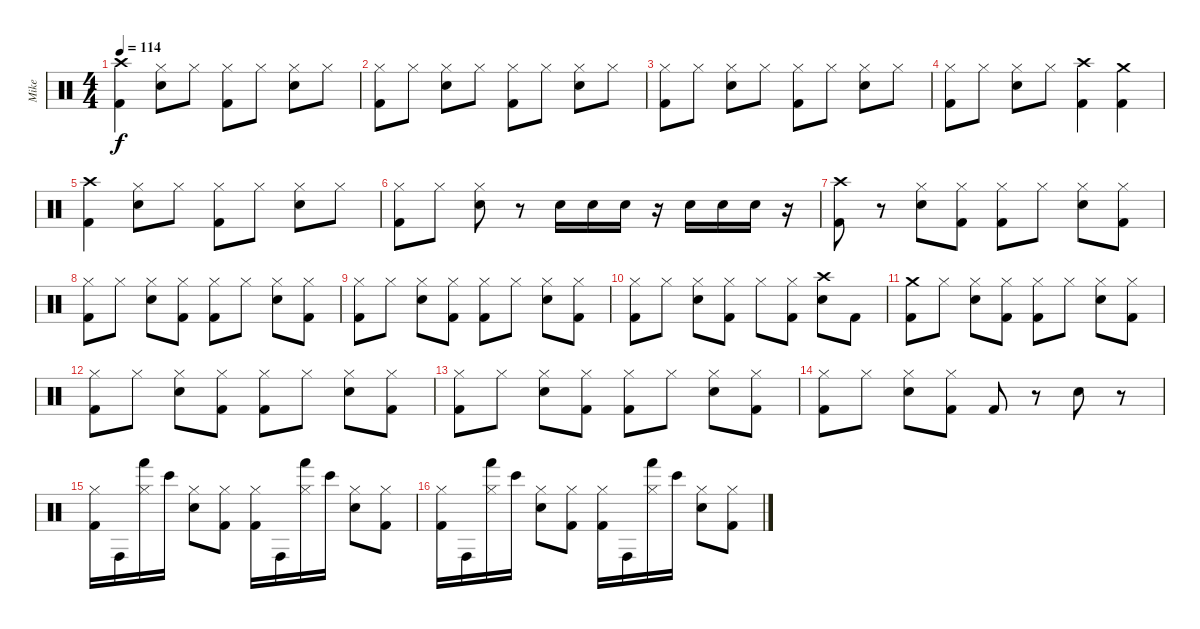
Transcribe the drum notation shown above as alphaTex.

\track ("Mike" "Mike") {instrument percussion}
\staff {score}
\articulation defaults
\ts (4 4)
\tempo 114
\clef neutral
\ks c
("Crash high (hit)" "Kick (hit) 2").4{dy f} ("Hi-Hat (closed)" "Electric Snare (hit)").8 "Hi-Hat (closed)".8 ("Hi-Hat (closed)" "Kick (hit) 2").8 "Hi-Hat (closed)".8 ("Hi-Hat (closed)" "Electric Snare (hit)").8 "Hi-Hat (closed)".8 |
("Hi-Hat (closed)" "Kick (hit) 2").8 "Hi-Hat (closed)".8 ("Hi-Hat (closed)" "Electric Snare (hit)").8 "Hi-Hat (closed)".8 ("Hi-Hat (closed)" "Kick (hit) 2").8 "Hi-Hat (closed)".8 ("Hi-Hat (closed)" "Electric Snare (hit)").8 "Hi-Hat (closed)".8 |
("Hi-Hat (closed)" "Kick (hit) 2").8 "Hi-Hat (closed)".8 ("Hi-Hat (closed)" "Electric Snare (hit)").8 "Hi-Hat (closed)".8 ("Hi-Hat (closed)" "Kick (hit) 2").8 "Hi-Hat (closed)".8 ("Hi-Hat (closed)" "Electric Snare (hit)").8 "Hi-Hat (closed)".8 |
("Hi-Hat (closed)" "Kick (hit) 2").8 "Hi-Hat (closed)".8 ("Hi-Hat (closed)" "Electric Snare (hit)").8 "Hi-Hat (closed)".8 ("Crash high (hit)" "Kick (hit) 2").4 ("Crash medium (hit)" "Kick (hit) 2").4 |
("Crash high (hit)" "Kick (hit) 2").4 ("Hi-Hat (closed)" "Electric Snare (hit)").8 "Hi-Hat (closed)".8 ("Hi-Hat (closed)" "Kick (hit) 2").8 "Hi-Hat (closed)".8 ("Hi-Hat (closed)" "Electric Snare (hit)").8 "Hi-Hat (closed)".8 |
("Hi-Hat (closed)" "Kick (hit) 2").8 "Hi-Hat (closed)".8 ("Hi-Hat (closed)" "Electric Snare (hit)").8 r.8 "Electric Snare (hit)".16 "Electric Snare (hit)".16 "Electric Snare (hit)".16 r.16 "Electric Snare (hit)".16 "Electric Snare (hit)".16 "Electric Snare (hit)".16 r.16 |
("Crash high (hit)" "Kick (hit) 2").8 r.8 ("Hi-Hat (closed)" "Electric Snare (hit)").8 ("Hi-Hat (closed)" "Kick (hit) 2").8 ("Hi-Hat (closed)" "Kick (hit) 2").8 "Hi-Hat (closed)".8 ("Hi-Hat (closed)" "Electric Snare (hit)").8 ("Hi-Hat (closed)" "Kick (hit) 2").8 |
("Hi-Hat (closed)" "Kick (hit) 2").8 "Hi-Hat (closed)".8 ("Hi-Hat (closed)" "Electric Snare (hit)").8 ("Hi-Hat (closed)" "Kick (hit) 2").8 ("Hi-Hat (closed)" "Kick (hit) 2").8 "Hi-Hat (closed)".8 ("Hi-Hat (closed)" "Electric Snare (hit)").8 ("Hi-Hat (closed)" "Kick (hit) 2").8 |
("Hi-Hat (closed)" "Kick (hit) 2").8 "Hi-Hat (closed)".8 ("Hi-Hat (closed)" "Electric Snare (hit)").8 ("Hi-Hat (closed)" "Kick (hit) 2").8 ("Hi-Hat (closed)" "Kick (hit) 2").8 "Hi-Hat (closed)".8 ("Hi-Hat (closed)" "Electric Snare (hit)").8 ("Hi-Hat (closed)" "Kick (hit) 2").8 |
("Hi-Hat (closed)" "Kick (hit) 2").8 "Hi-Hat (closed)".8 ("Hi-Hat (closed)" "Electric Snare (hit)").8 ("Hi-Hat (closed)" "Kick (hit) 2").8 "Hi-Hat (closed)".8 ("Hi-Hat (closed)" "Kick (hit) 2").8 ("Crash high (hit)" "Electric Snare (hit)").8 "Kick (hit) 2".8 |
("Crash medium (hit)" "Kick (hit) 2").8 "Hi-Hat (closed)".8 ("Hi-Hat (closed)" "Electric Snare (hit)").8 ("Hi-Hat (closed)" "Kick (hit) 2").8 ("Hi-Hat (closed)" "Kick (hit) 2").8 "Hi-Hat (closed)".8 ("Hi-Hat (closed)" "Electric Snare (hit)").8 ("Hi-Hat (closed)" "Kick (hit) 2").8 |
("Hi-Hat (closed)" "Kick (hit) 2").8 "Hi-Hat (closed)".8 ("Hi-Hat (closed)" "Electric Snare (hit)").8 ("Hi-Hat (closed)" "Kick (hit) 2").8 ("Hi-Hat (closed)" "Kick (hit) 2").8 "Hi-Hat (closed)".8 ("Hi-Hat (closed)" "Electric Snare (hit)").8 ("Hi-Hat (closed)" "Kick (hit) 2").8 |
("Hi-Hat (closed)" "Kick (hit) 2").8 "Hi-Hat (closed)".8 ("Hi-Hat (closed)" "Electric Snare (hit)").8 ("Hi-Hat (closed)" "Kick (hit) 2").8 ("Hi-Hat (closed)" "Kick (hit) 2").8 "Hi-Hat (closed)".8 ("Hi-Hat (closed)" "Electric Snare (hit)").8 ("Hi-Hat (closed)" "Kick (hit) 2").8 |
("Hi-Hat (closed)" "Kick (hit) 2").8 "Hi-Hat (closed)".8 ("Hi-Hat (closed)" "Electric Snare (hit)").8 ("Hi-Hat (closed)" "Kick (hit) 2").8 "Kick (hit) 2".8 r.8 "Electric Snare (hit)".8 r.8 |
("Hi-Hat (closed)" "Kick (hit) 2").16 "Conga high (hit)".16 ("Hi-Hat (closed)" "Hand (hit)").16 "Bongo High (hit)".16 ("Hi-Hat (closed)" "Electric Snare (hit)").8 ("Hi-Hat (closed)" "Kick (hit) 2").8 ("Hi-Hat (closed)" "Kick (hit) 2").16 "Conga high (hit)".16 ("Hi-Hat (closed)" "Hand (hit)").16 "Bongo High (hit)".16 ("Hi-Hat (closed)" "Electric Snare (hit)").8 ("Hi-Hat (closed)" "Kick (hit) 2").8 |
("Hi-Hat (closed)" "Kick (hit) 2").16 "Conga high (hit)".16 ("Hi-Hat (closed)" "Hand (hit)").16 "Bongo High (hit)".16 ("Hi-Hat (closed)" "Electric Snare (hit)").8 ("Hi-Hat (closed)" "Kick (hit) 2").8 ("Hi-Hat (closed)" "Kick (hit) 2").16 "Conga high (hit)".16 ("Hi-Hat (closed)" "Hand (hit)").16 "Bongo High (hit)".16 ("Hi-Hat (closed)" "Electric Snare (hit)").8 ("Hi-Hat (closed)" "Kick (hit) 2").8
